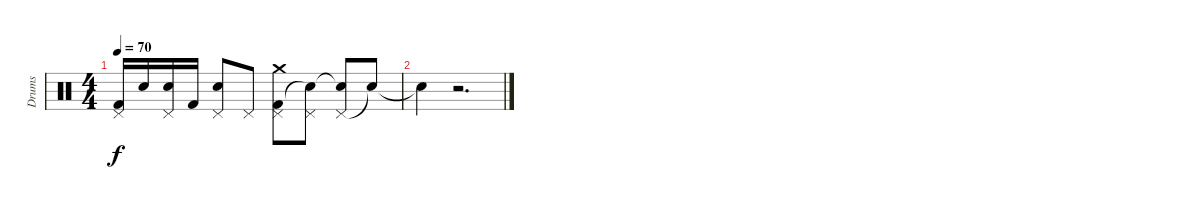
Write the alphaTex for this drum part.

\track ("Drums" "Drums") {instrument percussion}
\staff {score}
\articulation defaults
\ts (4 4)
\tempo 70
\clef neutral
\ks c
("Pedal Hi-Hat (hit)" "Kick (hit) 2").16{dy f} "Electric Snare (hit)".16 ("Pedal Hi-Hat (hit)" "Electric Snare (hit)").16 "Kick (hit) 2".16 ("Pedal Hi-Hat (hit)" "Electric Snare (hit)").8 "Pedal Hi-Hat (hit)".8 ("Pedal Hi-Hat (hit)" "Kick (hit) 2" "Crash medium (hit)").8 ("Pedal Hi-Hat (hit)" "Snare (hit)"{t}).8 ("Pedal Hi-Hat (hit)" "Snare (hit)"{t}).8 "Snare (hit)"{t}.8 |
"Snare (hit)"{t}.4 r.2{d}
